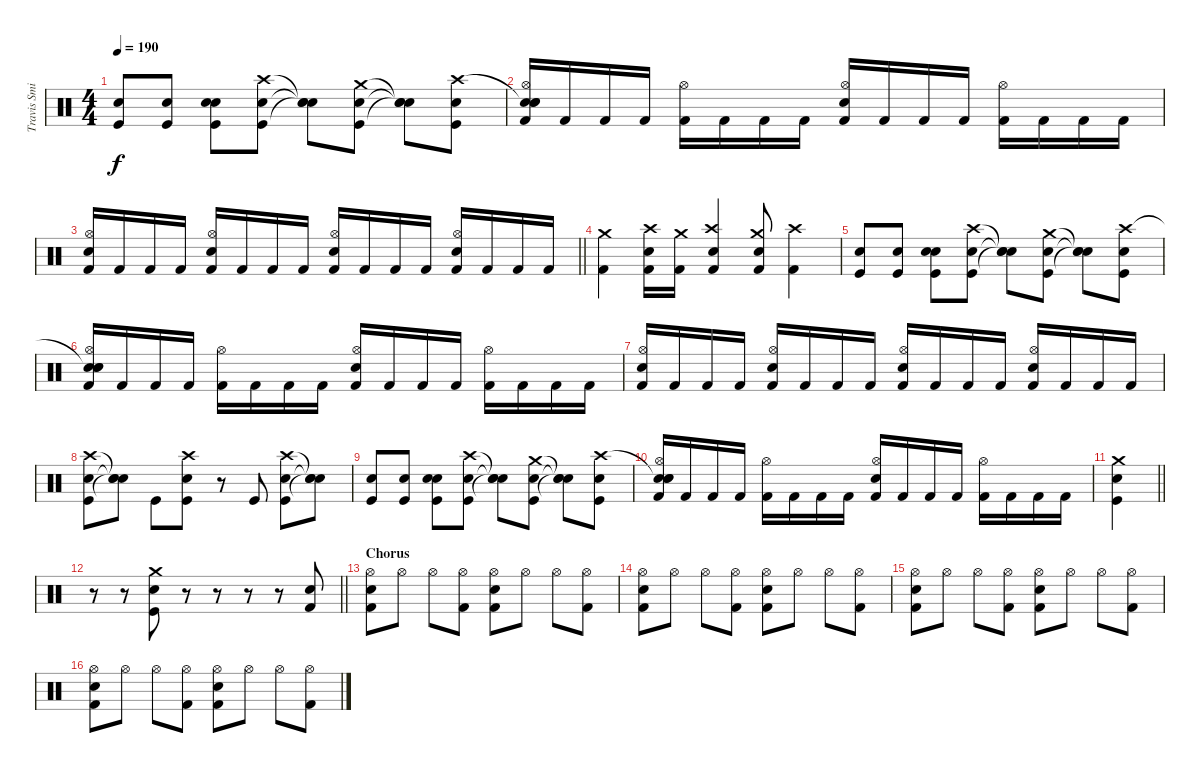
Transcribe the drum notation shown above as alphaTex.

\track ("Travis Smith" "Travis Smi") {instrument percussion}
\staff {score}
\articulation defaults
\ts (4 4)
\tempo 190
\clef neutral
\ks c
("Snare (hit) 2" "Kick (hit)").8{dy f} ("Snare (hit) 2" "Kick (hit)").8 ("Electric Snare (hit)" "Snare (hit) 2" "Kick (hit)").8 ("Crash high (hit)" "Electric Snare (hit)" "Kick (hit)").8 ("Snare (hit)"{t} "Snare (hit)"{t} "Snare (hit)"{t}).8 ("Crash medium (hit)" "Electric Snare (hit)" "Kick (hit)").8 ("Snare (hit)"{t} "Snare (hit)"{t} "Snare (hit)"{t}).8 ("Crash high (hit)" "Electric Snare (hit)" "Kick (hit)").8 |
("Snare (hit)"{t} "Hi-Hat (open)" "Electric Snare (hit)" "Snare (hit)" "Kick (hit) 2").16 "Kick (hit) 2".16 "Kick (hit) 2".16 "Kick (hit) 2".16 ("Hi-Hat (open)" "Kick (hit) 2").16 "Kick (hit) 2".16 "Kick (hit) 2".16 "Kick (hit) 2".16 ("Hi-Hat (open)" "Electric Snare (hit)" "Kick (hit) 2").16 "Kick (hit) 2".16 "Kick (hit) 2".16 "Kick (hit) 2".16 ("Hi-Hat (open)" "Kick (hit) 2").16 "Kick (hit) 2".16 "Kick (hit) 2".16 "Kick (hit) 2".16 |
\barLineRight lightlight
("Hi-Hat (open)" "Electric Snare (hit)" "Kick (hit) 2").16 "Kick (hit) 2".16 "Kick (hit) 2".16 "Kick (hit) 2".16 ("Hi-Hat (open)" "Electric Snare (hit)" "Kick (hit) 2").16 "Kick (hit) 2".16 "Kick (hit) 2".16 "Kick (hit) 2".16 ("Hi-Hat (open)" "Electric Snare (hit)" "Kick (hit) 2").16 "Kick (hit) 2".16 "Kick (hit) 2".16 "Kick (hit) 2".16 ("Hi-Hat (open)" "Electric Snare (hit)" "Kick (hit) 2").16 "Kick (hit) 2".16 "Kick (hit) 2".16 "Kick (hit) 2".16 |
("Crash medium (hit)" "Kick (hit) 2").4 ("Crash high (hit)" "Electric Snare (hit)" "Kick (hit) 2").16 ("Crash medium (hit)" "Kick (hit) 2").16 ("Crash high (hit)" "Electric Snare (hit)" "Kick (hit) 2").4 ("Crash medium (hit)" "Electric Snare (hit)" "Kick (hit) 2").8 ("Crash high (hit)" "Kick (hit) 2").4 |
("Snare (hit) 2" "Kick (hit)").8 ("Snare (hit) 2" "Kick (hit)").8 ("Electric Snare (hit)" "Snare (hit) 2" "Kick (hit)").8 ("Crash high (hit)" "Electric Snare (hit)" "Kick (hit)").8 ("Snare (hit)"{t} "Snare (hit)"{t} "Snare (hit)"{t}).8 ("Crash medium (hit)" "Electric Snare (hit)" "Kick (hit)").8 ("Snare (hit)"{t} "Snare (hit)"{t} "Snare (hit)"{t}).8 ("Crash high (hit)" "Electric Snare (hit)" "Kick (hit)").8 |
("Snare (hit)"{t} "Hi-Hat (open)" "Electric Snare (hit)" "Snare (hit)" "Kick (hit) 2").16 "Kick (hit) 2".16 "Kick (hit) 2".16 "Kick (hit) 2".16 ("Hi-Hat (open)" "Kick (hit) 2").16 "Kick (hit) 2".16 "Kick (hit) 2".16 "Kick (hit) 2".16 ("Hi-Hat (open)" "Electric Snare (hit)" "Kick (hit) 2").16 "Kick (hit) 2".16 "Kick (hit) 2".16 "Kick (hit) 2".16 ("Hi-Hat (open)" "Kick (hit) 2").16 "Kick (hit) 2".16 "Kick (hit) 2".16 "Kick (hit) 2".16 |
("Hi-Hat (open)" "Electric Snare (hit)" "Kick (hit) 2").16 "Kick (hit) 2".16 "Kick (hit) 2".16 "Kick (hit) 2".16 ("Hi-Hat (open)" "Electric Snare (hit)" "Kick (hit) 2").16 "Kick (hit) 2".16 "Kick (hit) 2".16 "Kick (hit) 2".16 ("Hi-Hat (open)" "Electric Snare (hit)" "Kick (hit) 2").16 "Kick (hit) 2".16 "Kick (hit) 2".16 "Kick (hit) 2".16 ("Hi-Hat (open)" "Electric Snare (hit)" "Kick (hit) 2").16 "Kick (hit) 2".16 "Kick (hit) 2".16 "Kick (hit) 2".16 |
("Crash high (hit)" "Electric Snare (hit)" "Kick (hit)").8 ("Snare (hit)"{t} "Snare (hit)"{t} "Snare (hit)"{t}).8 "Kick (hit)".8 ("Crash high (hit)" "Electric Snare (hit)" "Kick (hit)").8 r.8 "Kick (hit)".8 ("Crash high (hit)" "Electric Snare (hit)" "Kick (hit)").8 ("Snare (hit)"{t} "Snare (hit)"{t} "Snare (hit)"{t}).8 |
("Snare (hit) 2" "Kick (hit)").8 ("Snare (hit) 2" "Kick (hit)").8 ("Electric Snare (hit)" "Snare (hit) 2" "Kick (hit)").8 ("Crash high (hit)" "Electric Snare (hit)" "Kick (hit)").8 ("Snare (hit)"{t} "Snare (hit)"{t} "Snare (hit)"{t}).8 ("Crash medium (hit)" "Electric Snare (hit)" "Kick (hit)").8 ("Snare (hit)"{t} "Snare (hit)"{t} "Snare (hit)"{t}).8 ("Crash high (hit)" "Electric Snare (hit)" "Kick (hit)").8 |
("Snare (hit)"{t} "Hi-Hat (open)" "Electric Snare (hit)" "Snare (hit)" "Kick (hit) 2").16 "Kick (hit) 2".16 "Kick (hit) 2".16 "Kick (hit) 2".16 ("Hi-Hat (open)" "Kick (hit) 2").16 "Kick (hit) 2".16 "Kick (hit) 2".16 "Kick (hit) 2".16 ("Hi-Hat (open)" "Electric Snare (hit)" "Kick (hit) 2").16 "Kick (hit) 2".16 "Kick (hit) 2".16 "Kick (hit) 2".16 ("Hi-Hat (open)" "Kick (hit) 2").16 "Kick (hit) 2".16 "Kick (hit) 2".16 "Kick (hit) 2".16 |
\barLineRight lightlight
("Crash medium (hit)" "Electric Snare (hit)" "Kick (hit)").4 |
\barLineRight lightlight
r.8 r.8 ("Crash medium (hit)" "Electric Snare (hit)" "Kick (hit)").8 r.8 r.8 r.8 r.8 ("Electric Snare (hit)" "Kick (hit) 2").8 |
\section ("" "Chorus")
("Hi-Hat (open)" "Electric Snare (hit)" "Kick (hit) 2").8 "Hi-Hat (open)".8 "Hi-Hat (open)".8 ("Hi-Hat (open)" "Kick (hit) 2").8 ("Hi-Hat (open)" "Electric Snare (hit)" "Kick (hit) 2").8 "Hi-Hat (open)".8 "Hi-Hat (open)".8 ("Hi-Hat (open)" "Kick (hit) 2").8 |
("Hi-Hat (open)" "Electric Snare (hit)" "Kick (hit) 2").8 "Hi-Hat (open)".8 "Hi-Hat (open)".8 ("Hi-Hat (open)" "Kick (hit) 2").8 ("Hi-Hat (open)" "Electric Snare (hit)" "Kick (hit) 2").8 "Hi-Hat (open)".8 "Hi-Hat (open)".8 ("Hi-Hat (open)" "Kick (hit) 2").8 |
("Hi-Hat (open)" "Electric Snare (hit)" "Kick (hit) 2").8 "Hi-Hat (open)".8 "Hi-Hat (open)".8 ("Hi-Hat (open)" "Kick (hit) 2").8 ("Hi-Hat (open)" "Electric Snare (hit)" "Kick (hit) 2").8 "Hi-Hat (open)".8 "Hi-Hat (open)".8 ("Hi-Hat (open)" "Kick (hit) 2").8 |
("Hi-Hat (open)" "Electric Snare (hit)" "Kick (hit) 2").8 "Hi-Hat (open)".8 "Hi-Hat (open)".8 ("Hi-Hat (open)" "Kick (hit) 2").8 ("Hi-Hat (open)" "Electric Snare (hit)" "Kick (hit) 2").8 "Hi-Hat (open)".8 "Hi-Hat (open)".8 ("Hi-Hat (open)" "Kick (hit) 2").8
